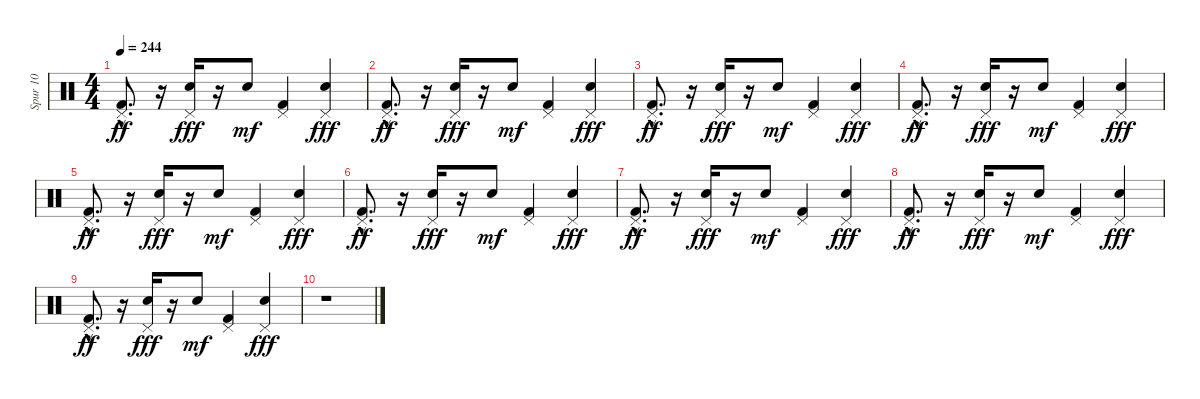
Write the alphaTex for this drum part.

\track ("Spur 10" "Spur 10") {instrument percussion}
\staff {score}
\articulation defaults
\ts (4 4)
\tempo 244
\clef neutral
\ks c
("Pedal Hi-Hat (hit)" "Kick (hit) 2"{hac}).8{d dy ff} r.16 ("Pedal Hi-Hat (hit)" "Electric Snare (hit)").16{dy fff} r.16 "Electric Snare (hit)".8{dy mf} ("Pedal Hi-Hat (hit)" "Kick (hit) 2").4 ("Pedal Hi-Hat (hit)" "Electric Snare (hit)").4{dy fff} |
("Pedal Hi-Hat (hit)" "Kick (hit) 2"{hac}).8{d dy ff} r.16 ("Pedal Hi-Hat (hit)" "Electric Snare (hit)").16{dy fff} r.16 "Electric Snare (hit)".8{dy mf} ("Pedal Hi-Hat (hit)" "Kick (hit) 2").4 ("Pedal Hi-Hat (hit)" "Electric Snare (hit)").4{dy fff} |
("Pedal Hi-Hat (hit)" "Kick (hit) 2"{hac}).8{d dy ff} r.16 ("Pedal Hi-Hat (hit)" "Electric Snare (hit)").16{dy fff} r.16 "Electric Snare (hit)".8{dy mf} ("Pedal Hi-Hat (hit)" "Kick (hit) 2").4 ("Pedal Hi-Hat (hit)" "Electric Snare (hit)").4{dy fff} |
("Pedal Hi-Hat (hit)" "Kick (hit) 2"{hac}).8{d dy ff} r.16 ("Pedal Hi-Hat (hit)" "Electric Snare (hit)").16{dy fff} r.16 "Electric Snare (hit)".8{dy mf} ("Pedal Hi-Hat (hit)" "Kick (hit) 2").4 ("Pedal Hi-Hat (hit)" "Electric Snare (hit)").4{dy fff} |
("Pedal Hi-Hat (hit)" "Kick (hit) 2"{hac}).8{d dy ff} r.16 ("Pedal Hi-Hat (hit)" "Electric Snare (hit)").16{dy fff} r.16 "Electric Snare (hit)".8{dy mf} ("Pedal Hi-Hat (hit)" "Kick (hit) 2").4 ("Pedal Hi-Hat (hit)" "Electric Snare (hit)").4{dy fff} |
("Pedal Hi-Hat (hit)" "Kick (hit) 2"{hac}).8{d dy ff} r.16 ("Pedal Hi-Hat (hit)" "Electric Snare (hit)").16{dy fff} r.16 "Electric Snare (hit)".8{dy mf} ("Pedal Hi-Hat (hit)" "Kick (hit) 2").4 ("Pedal Hi-Hat (hit)" "Electric Snare (hit)").4{dy fff} |
("Pedal Hi-Hat (hit)" "Kick (hit) 2"{hac}).8{d dy ff} r.16 ("Pedal Hi-Hat (hit)" "Electric Snare (hit)").16{dy fff} r.16 "Electric Snare (hit)".8{dy mf} ("Pedal Hi-Hat (hit)" "Kick (hit) 2").4 ("Pedal Hi-Hat (hit)" "Electric Snare (hit)").4{dy fff} |
("Pedal Hi-Hat (hit)" "Kick (hit) 2"{hac}).8{d dy ff} r.16 ("Pedal Hi-Hat (hit)" "Electric Snare (hit)").16{dy fff} r.16 "Electric Snare (hit)".8{dy mf} ("Pedal Hi-Hat (hit)" "Kick (hit) 2").4 ("Pedal Hi-Hat (hit)" "Electric Snare (hit)").4{dy fff} |
("Pedal Hi-Hat (hit)" "Kick (hit) 2"{hac}).8{d dy ff} r.16 ("Pedal Hi-Hat (hit)" "Electric Snare (hit)").16{dy fff} r.16 "Electric Snare (hit)".8{dy mf} ("Pedal Hi-Hat (hit)" "Kick (hit) 2").4 ("Pedal Hi-Hat (hit)" "Electric Snare (hit)").4{dy fff} |
r.1
